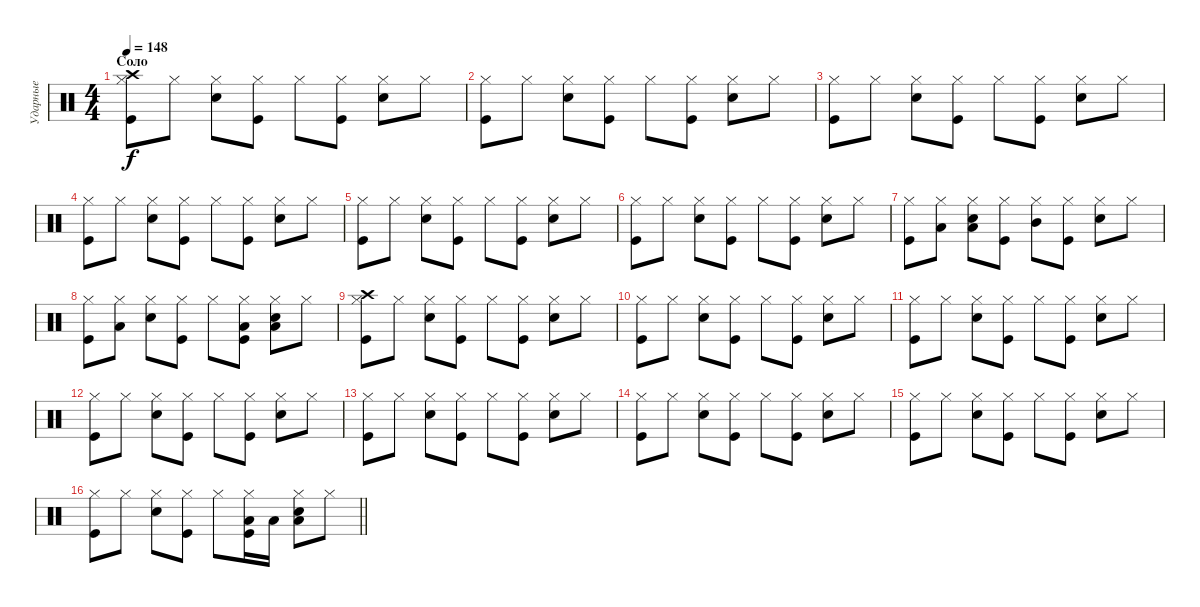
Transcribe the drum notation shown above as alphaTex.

\track ("Ударные" "Ударные") {instrument percussion}
\staff {score}
\articulation defaults
\ts (4 4)
\section ("" "Соло")
\tempo 148
\clef neutral
\ks c
("Kick (hit)" "Hi-Hat (closed)" "Crash high (hit)").8{dy f} "Hi-Hat (closed)".8 ("Snare (hit) 2" "Hi-Hat (closed)").8 ("Kick (hit)" "Hi-Hat (closed)").8 "Hi-Hat (closed)".8 ("Kick (hit)" "Hi-Hat (closed)").8 ("Snare (hit) 2" "Hi-Hat (closed)").8 "Hi-Hat (closed)".8 |
("Kick (hit)" "Hi-Hat (closed)").8 "Hi-Hat (closed)".8 ("Snare (hit) 2" "Hi-Hat (closed)").8 ("Kick (hit)" "Hi-Hat (closed)").8 "Hi-Hat (closed)".8 ("Kick (hit)" "Hi-Hat (closed)").8 ("Snare (hit) 2" "Hi-Hat (closed)").8 "Hi-Hat (closed)".8 |
("Kick (hit)" "Hi-Hat (closed)").8 "Hi-Hat (closed)".8 ("Snare (hit) 2" "Hi-Hat (closed)").8 ("Kick (hit)" "Hi-Hat (closed)").8 "Hi-Hat (closed)".8 ("Kick (hit)" "Hi-Hat (closed)").8 ("Snare (hit) 2" "Hi-Hat (closed)").8 "Hi-Hat (closed)".8 |
("Kick (hit)" "Hi-Hat (closed)").8 "Hi-Hat (closed)".8 ("Snare (hit) 2" "Hi-Hat (closed)").8 ("Kick (hit)" "Hi-Hat (closed)").8 "Hi-Hat (closed)".8 ("Kick (hit)" "Hi-Hat (closed)").8 ("Snare (hit) 2" "Hi-Hat (closed)").8 "Hi-Hat (closed)".8 |
("Kick (hit)" "Hi-Hat (closed)").8 "Hi-Hat (closed)".8 ("Snare (hit) 2" "Hi-Hat (closed)").8 ("Kick (hit)" "Hi-Hat (closed)").8 "Hi-Hat (closed)".8 ("Kick (hit)" "Hi-Hat (closed)").8 ("Snare (hit) 2" "Hi-Hat (closed)").8 "Hi-Hat (closed)".8 |
("Kick (hit)" "Hi-Hat (closed)").8 "Hi-Hat (closed)".8 ("Snare (hit) 2" "Hi-Hat (closed)").8 ("Kick (hit)" "Hi-Hat (closed)").8 "Hi-Hat (closed)".8 ("Kick (hit)" "Hi-Hat (closed)").8 ("Snare (hit) 2" "Hi-Hat (closed)").8 "Hi-Hat (closed)".8 |
("Kick (hit)" "Hi-Hat (closed)").8 ("Hi-Hat (closed)" "Low Tom (hit)").8 ("Snare (hit) 2" "Hi-Hat (closed)" "Low Tom (hit)").8 ("Kick (hit)" "Hi-Hat (closed)").8 ("Hi-Hat (closed)" "Mid Tom (hit)").8 ("Kick (hit)" "Hi-Hat (closed)").8 ("Snare (hit) 2" "Hi-Hat (closed)").8 "Hi-Hat (closed)".8 |
("Kick (hit)" "Hi-Hat (closed)").8 ("Hi-Hat (closed)" "Low Tom (hit)").8 ("Snare (hit) 2" "Hi-Hat (closed)").8 ("Kick (hit)" "Hi-Hat (closed)").8 "Hi-Hat (closed)".8 ("Kick (hit)" "Hi-Hat (closed)" "Low Floor Tom (hit)").8 ("Snare (hit) 2" "Hi-Hat (closed)" "Low Floor Tom (hit)").8 "Hi-Hat (closed)".8 |
("Kick (hit)" "Hi-Hat (closed)" "Crash high (hit)").8 "Hi-Hat (closed)".8 ("Snare (hit) 2" "Hi-Hat (closed)").8 ("Kick (hit)" "Hi-Hat (closed)").8 "Hi-Hat (closed)".8 ("Kick (hit)" "Hi-Hat (closed)").8 ("Snare (hit) 2" "Hi-Hat (closed)").8 "Hi-Hat (closed)".8 |
("Kick (hit)" "Hi-Hat (closed)").8 "Hi-Hat (closed)".8 ("Snare (hit) 2" "Hi-Hat (closed)").8 ("Kick (hit)" "Hi-Hat (closed)").8 "Hi-Hat (closed)".8 ("Kick (hit)" "Hi-Hat (closed)").8 ("Snare (hit) 2" "Hi-Hat (closed)").8 "Hi-Hat (closed)".8 |
("Kick (hit)" "Hi-Hat (closed)").8 "Hi-Hat (closed)".8 ("Snare (hit) 2" "Hi-Hat (closed)").8 ("Kick (hit)" "Hi-Hat (closed)").8 "Hi-Hat (closed)".8 ("Kick (hit)" "Hi-Hat (closed)").8 ("Snare (hit) 2" "Hi-Hat (closed)").8 "Hi-Hat (closed)".8 |
("Kick (hit)" "Hi-Hat (closed)").8 "Hi-Hat (closed)".8 ("Snare (hit) 2" "Hi-Hat (closed)").8 ("Kick (hit)" "Hi-Hat (closed)").8 "Hi-Hat (closed)".8 ("Kick (hit)" "Hi-Hat (closed)").8 ("Snare (hit) 2" "Hi-Hat (closed)").8 "Hi-Hat (closed)".8 |
("Kick (hit)" "Hi-Hat (closed)").8 "Hi-Hat (closed)".8 ("Snare (hit) 2" "Hi-Hat (closed)").8 ("Kick (hit)" "Hi-Hat (closed)").8 "Hi-Hat (closed)".8 ("Kick (hit)" "Hi-Hat (closed)").8 ("Snare (hit) 2" "Hi-Hat (closed)").8 "Hi-Hat (closed)".8 |
("Kick (hit)" "Hi-Hat (closed)").8 "Hi-Hat (closed)".8 ("Snare (hit) 2" "Hi-Hat (closed)").8 ("Kick (hit)" "Hi-Hat (closed)").8 "Hi-Hat (closed)".8 ("Kick (hit)" "Hi-Hat (closed)").8 ("Snare (hit) 2" "Hi-Hat (closed)").8 "Hi-Hat (closed)".8 |
("Kick (hit)" "Hi-Hat (closed)").8 "Hi-Hat (closed)".8 ("Snare (hit) 2" "Hi-Hat (closed)").8 ("Kick (hit)" "Hi-Hat (closed)").8 "Hi-Hat (closed)".8 ("Kick (hit)" "Hi-Hat (closed)").8 ("Snare (hit) 2" "Hi-Hat (closed)").8 "Hi-Hat (closed)".8 |
\barLineRight lightlight
("Kick (hit)" "Hi-Hat (closed)").8 "Hi-Hat (closed)".8 ("Snare (hit) 2" "Hi-Hat (closed)").8 ("Kick (hit)" "Hi-Hat (closed)").8 "Hi-Hat (closed)".8 ("Kick (hit)" "Hi-Hat (closed)" "Low Tom (hit)").16 "Low Tom (hit)".16 ("Snare (hit) 2" "Hi-Hat (closed)" "Low Tom (hit)").8 "Hi-Hat (closed)".8
